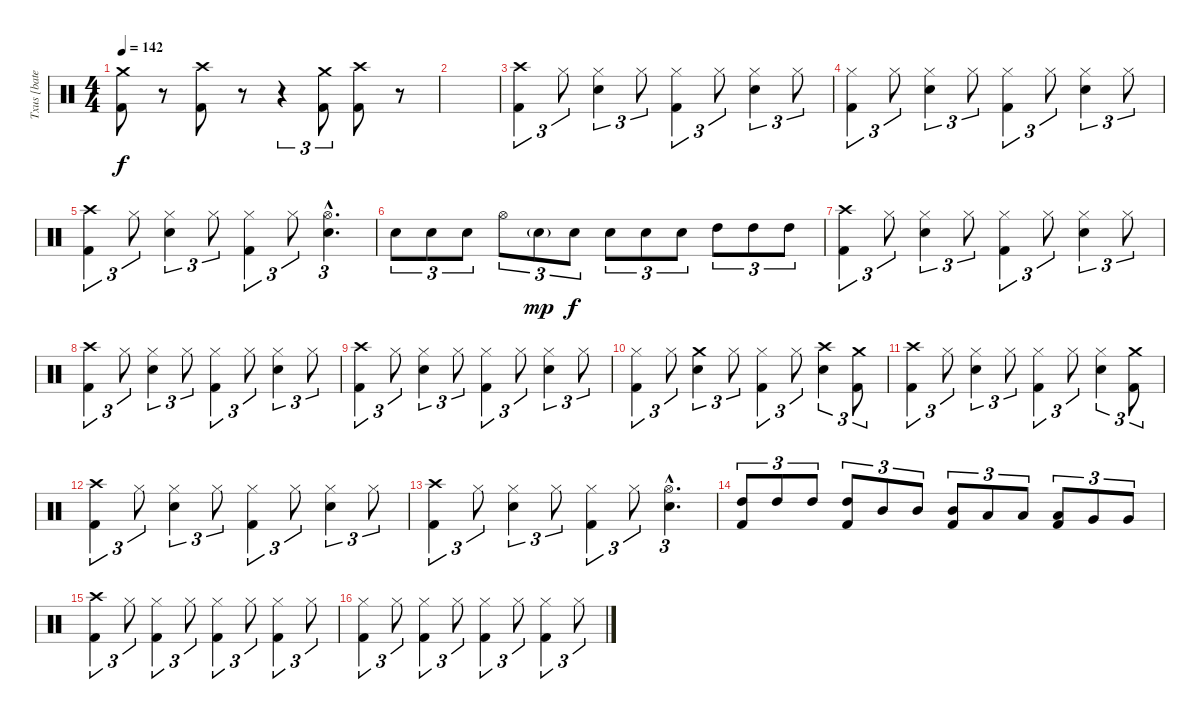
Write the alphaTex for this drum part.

\track ("Txus [bateria]" "Txus [bate") {instrument percussion}
\staff {score}
\articulation defaults
\ts (4 4)
\tempo 142
\clef neutral
\ks c
("Crash medium (hit)" "Kick (hit) 2").8{dy f} r.8{volume 0} ("Crash high (hit)" "Kick (hit) 2").8{volume 13} r.8{volume 0} r.4{tu (3 2)} ("Crash medium (hit)" "Kick (hit) 2").8{tu (3 2) volume 13} ("Crash high (hit)" "Kick (hit) 2").8 r.8{volume 0} |
|
("Crash high (hit)" "Kick (hit) 2").4{tu (3 2) volume 13} "Hi-Hat (closed)".8{tu (3 2)} ("Hi-Hat (closed)" "Snare (hit) 2").4{tu (3 2)} "Hi-Hat (closed)".8{tu (3 2)} ("Hi-Hat (closed)" "Kick (hit) 2").4{tu (3 2)} "Hi-Hat (closed)".8{tu (3 2)} ("Hi-Hat (closed)" "Snare (hit) 2").4{tu (3 2)} "Hi-Hat (closed)".8{tu (3 2)} |
("Hi-Hat (closed)" "Kick (hit) 2").4{tu (3 2)} "Hi-Hat (closed)".8{tu (3 2)} ("Hi-Hat (closed)" "Snare (hit) 2").4{tu (3 2)} "Hi-Hat (closed)".8{tu (3 2)} ("Hi-Hat (closed)" "Kick (hit) 2").4{tu (3 2)} "Hi-Hat (closed)".8{tu (3 2)} ("Hi-Hat (closed)" "Snare (hit) 2").4{tu (3 2)} "Hi-Hat (closed)".8{tu (3 2)} |
("Crash high (hit)" "Kick (hit) 2").4{tu (3 2)} "Hi-Hat (closed)".8{tu (3 2)} ("Hi-Hat (closed)" "Snare (hit) 2").4{tu (3 2)} "Hi-Hat (closed)".8{tu (3 2)} ("Hi-Hat (closed)" "Kick (hit) 2").4{tu (3 2)} "Hi-Hat (closed)".8{tu (3 2)} ("Hi-Hat (open)"{hac} "Snare (hit) 2"{hac}).4{d tu (3 2)} |
"Snare (hit) 2".8{tu (3 2)} "Snare (hit) 2".8{tu (3 2)} "Snare (hit) 2".8{tu (3 2)} "Hi-Hat (open)".8{tu (3 2)} "Snare (hit) 2"{g}.8{tu (3 2) dy mp} "Snare (hit) 2".8{tu (3 2) dy f} "Snare (hit) 2".8{tu (3 2)} "Snare (hit) 2".8{tu (3 2)} "Snare (hit) 2".8{tu (3 2)} "High Tom (hit)".8{tu (3 2)} "High Tom (hit)".8{tu (3 2)} "High Tom (hit)".8{tu (3 2)} |
("Crash high (hit)" "Kick (hit) 2").4{tu (3 2)} "Hi-Hat (closed)".8{tu (3 2)} ("Hi-Hat (closed)" "Snare (hit) 2").4{tu (3 2)} "Hi-Hat (closed)".8{tu (3 2)} ("Hi-Hat (closed)" "Kick (hit) 2").4{tu (3 2)} "Hi-Hat (closed)".8{tu (3 2)} ("Hi-Hat (closed)" "Snare (hit) 2").4{tu (3 2)} "Hi-Hat (closed)".8{tu (3 2)} |
("Crash high (hit)" "Kick (hit) 2").4{tu (3 2)} "Hi-Hat (closed)".8{tu (3 2)} ("Hi-Hat (closed)" "Snare (hit) 2").4{tu (3 2)} "Hi-Hat (closed)".8{tu (3 2)} ("Hi-Hat (closed)" "Kick (hit) 2").4{tu (3 2)} "Hi-Hat (closed)".8{tu (3 2)} ("Hi-Hat (closed)" "Snare (hit) 2").4{tu (3 2)} "Hi-Hat (closed)".8{tu (3 2)} |
("Crash high (hit)" "Kick (hit) 2").4{tu (3 2)} "Hi-Hat (closed)".8{tu (3 2)} ("Hi-Hat (closed)" "Snare (hit) 2").4{tu (3 2)} "Hi-Hat (closed)".8{tu (3 2)} ("Hi-Hat (closed)" "Kick (hit) 2").4{tu (3 2)} "Hi-Hat (closed)".8{tu (3 2)} ("Hi-Hat (closed)" "Snare (hit) 2").4{tu (3 2)} "Hi-Hat (closed)".8{tu (3 2)} |
("Hi-Hat (closed)" "Kick (hit) 2").4{tu (3 2)} "Hi-Hat (closed)".8{tu (3 2)} ("Crash medium (hit)" "Snare (hit) 2").4{tu (3 2)} "Hi-Hat (closed)".8{tu (3 2)} ("Hi-Hat (closed)" "Kick (hit) 2").4{tu (3 2)} "Hi-Hat (closed)".8{tu (3 2)} ("Crash high (hit)" "Snare (hit) 2").4{tu (3 2)} ("Crash medium (hit)" "Kick (hit) 2").8{tu (3 2)} |
("Crash high (hit)" "Kick (hit) 2").4{tu (3 2)} "Hi-Hat (closed)".8{tu (3 2)} ("Hi-Hat (closed)" "Snare (hit) 2").4{tu (3 2)} "Hi-Hat (closed)".8{tu (3 2)} ("Hi-Hat (closed)" "Kick (hit) 2").4{tu (3 2)} "Hi-Hat (closed)".8{tu (3 2)} ("Hi-Hat (closed)" "Snare (hit) 2").4{tu (3 2)} ("Crash medium (hit)" "Kick (hit) 2").8{tu (3 2)} |
("Crash high (hit)" "Kick (hit) 2").4{tu (3 2)} "Hi-Hat (closed)".8{tu (3 2)} ("Hi-Hat (closed)" "Snare (hit) 2").4{tu (3 2)} "Hi-Hat (closed)".8{tu (3 2)} ("Hi-Hat (closed)" "Kick (hit) 2").4{tu (3 2)} "Hi-Hat (closed)".8{tu (3 2)} ("Hi-Hat (closed)" "Snare (hit) 2").4{tu (3 2)} "Hi-Hat (closed)".8{tu (3 2)} |
("Crash high (hit)" "Kick (hit) 2").4{tu (3 2)} "Hi-Hat (closed)".8{tu (3 2)} ("Hi-Hat (closed)" "Snare (hit) 2").4{tu (3 2)} "Hi-Hat (closed)".8{tu (3 2)} ("Hi-Hat (closed)" "Kick (hit) 2").4{tu (3 2)} "Hi-Hat (closed)".8{tu (3 2)} ("Hi-Hat (open)"{hac} "Snare (hit) 2"{hac}).4{d tu (3 2)} |
("High Tom (hit)" "Kick (hit) 2").8{tu (3 2)} "High Tom (hit)".8{tu (3 2)} "High Tom (hit)".8{tu (3 2)} ("High Tom (hit)" "Kick (hit) 2").8{tu (3 2)} "Mid Tom (hit)".8{tu (3 2)} "Mid Tom (hit)".8{tu (3 2)} ("Mid Tom (hit)" "Kick (hit) 2").8{tu (3 2)} "Low Tom (hit)".8{tu (3 2)} "Low Tom (hit)".8{tu (3 2)} ("Low Tom (hit)" "Kick (hit) 2").8{tu (3 2)} "Very Low Tom (hit)".8{tu (3 2)} "Very Low Tom (hit)".8{tu (3 2)} |
("Crash high (hit)" "Kick (hit) 2").4{tu (3 2)} "Hi-Hat (closed)".8{tu (3 2)} ("Hi-Hat (closed)" "Kick (hit) 2").4{tu (3 2)} "Hi-Hat (closed)".8{tu (3 2)} ("Hi-Hat (closed)" "Kick (hit) 2").4{tu (3 2)} "Hi-Hat (closed)".8{tu (3 2)} ("Hi-Hat (closed)" "Kick (hit) 2").4{tu (3 2)} "Hi-Hat (closed)".8{tu (3 2)} |
("Hi-Hat (closed)" "Kick (hit) 2").4{tu (3 2)} "Hi-Hat (closed)".8{tu (3 2)} ("Hi-Hat (closed)" "Kick (hit) 2").4{tu (3 2)} "Hi-Hat (closed)".8{tu (3 2)} ("Hi-Hat (closed)" "Kick (hit) 2").4{tu (3 2)} "Hi-Hat (closed)".8{tu (3 2)} ("Hi-Hat (closed)" "Kick (hit) 2").4{tu (3 2)} "Hi-Hat (closed)".8{tu (3 2)}
